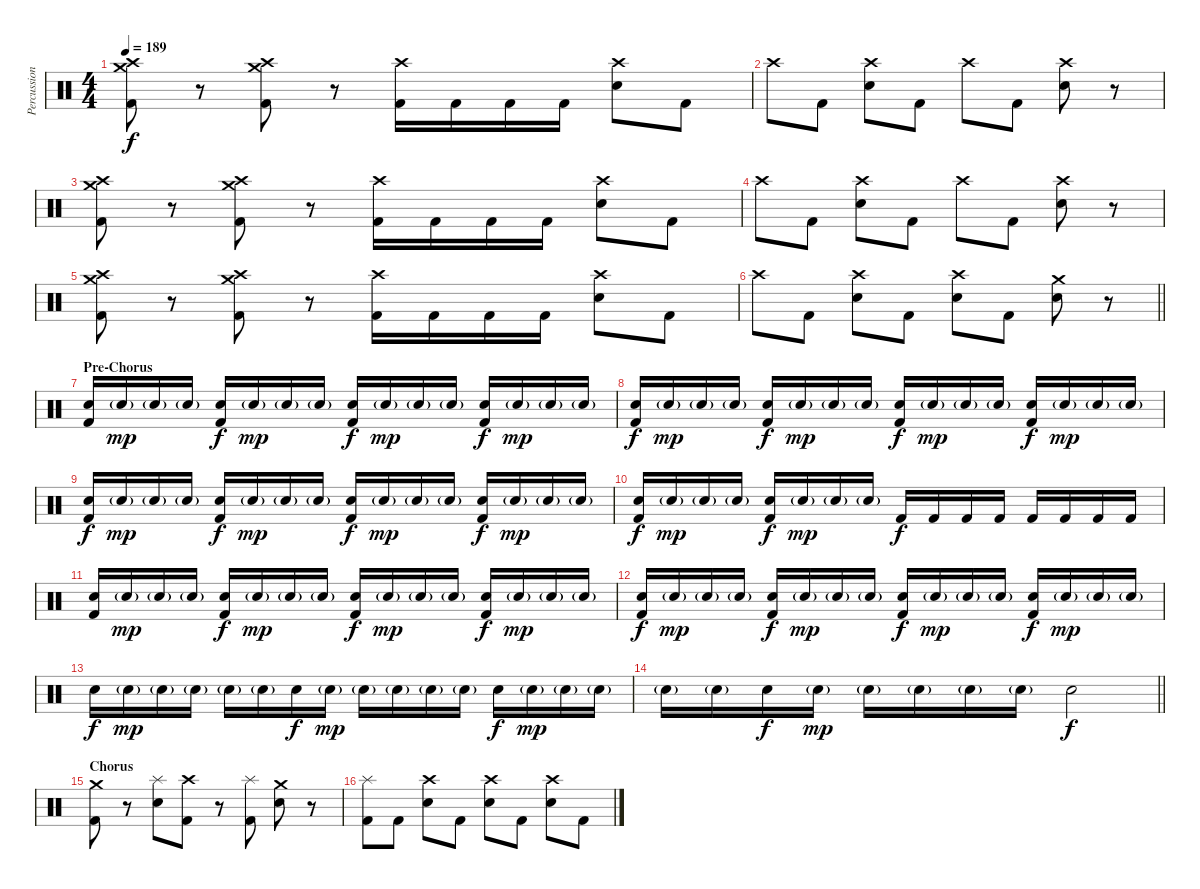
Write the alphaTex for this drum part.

\track ("Percussion" "Percussion") {instrument percussion}
\staff {score}
\articulation defaults
\ts (4 4)
\tempo 189
\clef neutral
\ks c
("Crash medium (hit)" "Crash high (hit)" "Kick (hit) 2").8{dy f} r.8 ("Crash medium (hit)" "Crash high (hit)" "Kick (hit) 2").8 r.8 ("Crash high (hit)" "Kick (hit) 2").16 "Kick (hit) 2".16 "Kick (hit) 2".16 "Kick (hit) 2".16 ("Crash high (hit)" "Electric Snare (hit)").8 "Kick (hit) 2".8 |
"Crash high (hit)".8 "Kick (hit) 2".8 ("Crash high (hit)" "Electric Snare (hit)").8 "Kick (hit) 2".8 "Crash high (hit)".8 "Kick (hit) 2".8 ("Crash high (hit)" "Electric Snare (hit)").8 r.8 |
("Crash medium (hit)" "Crash high (hit)" "Kick (hit) 2").8 r.8 ("Crash medium (hit)" "Crash high (hit)" "Kick (hit) 2").8 r.8 ("Crash high (hit)" "Kick (hit) 2").16 "Kick (hit) 2".16 "Kick (hit) 2".16 "Kick (hit) 2".16 ("Crash high (hit)" "Electric Snare (hit)").8 "Kick (hit) 2".8 |
"Crash high (hit)".8 "Kick (hit) 2".8 ("Crash high (hit)" "Electric Snare (hit)").8 "Kick (hit) 2".8 "Crash high (hit)".8 "Kick (hit) 2".8 ("Crash high (hit)" "Electric Snare (hit)").8 r.8 |
("Crash medium (hit)" "Crash high (hit)" "Kick (hit) 2").8 r.8 ("Crash medium (hit)" "Crash high (hit)" "Kick (hit) 2").8 r.8 ("Crash high (hit)" "Kick (hit) 2").16 "Kick (hit) 2".16 "Kick (hit) 2".16 "Kick (hit) 2".16 ("Crash high (hit)" "Electric Snare (hit)").8 "Kick (hit) 2".8 |
\barLineRight lightlight "Crash high (hit)".8 "Kick (hit) 2".8
("Crash high (hit)" "Electric Snare (hit)").8 "Kick (hit) 2".8 ("Crash high (hit)" "Electric Snare (hit)").8 "Kick (hit) 2".8 ("Crash medium (hit)" "Electric Snare (hit)").8 r.8 |
\section ("" "Pre-Chorus")
("Electric Snare (hit)" "Kick (hit) 2").16 "Electric Snare (hit)"{g}.16{dy mp} "Electric Snare (hit)"{g}.16 "Electric Snare (hit)"{g}.16 ("Electric Snare (hit)" "Kick (hit) 2").16{dy f} "Electric Snare (hit)"{g}.16{dy mp} "Electric Snare (hit)"{g}.16 "Electric Snare (hit)"{g}.16 ("Electric Snare (hit)" "Kick (hit) 2").16{dy f} "Electric Snare (hit)"{g}.16{dy mp} "Electric Snare (hit)"{g}.16 "Electric Snare (hit)"{g}.16 ("Electric Snare (hit)" "Kick (hit) 2").16{dy f} "Electric Snare (hit)"{g}.16{dy mp} "Electric Snare (hit)"{g}.16 "Electric Snare (hit)"{g}.16 |
("Electric Snare (hit)" "Kick (hit) 2").16{dy f} "Electric Snare (hit)"{g}.16{dy mp} "Electric Snare (hit)"{g}.16 "Electric Snare (hit)"{g}.16 ("Electric Snare (hit)" "Kick (hit) 2").16{dy f} "Electric Snare (hit)"{g}.16{dy mp} "Electric Snare (hit)"{g}.16 "Electric Snare (hit)"{g}.16 ("Electric Snare (hit)" "Kick (hit) 2").16{dy f} "Electric Snare (hit)"{g}.16{dy mp} "Electric Snare (hit)"{g}.16 "Electric Snare (hit)"{g}.16 ("Electric Snare (hit)" "Kick (hit) 2").16{dy f} "Electric Snare (hit)"{g}.16{dy mp} "Electric Snare (hit)"{g}.16 "Electric Snare (hit)"{g}.16 |
("Electric Snare (hit)" "Kick (hit) 2").16{dy f} "Electric Snare (hit)"{g}.16{dy mp} "Electric Snare (hit)"{g}.16 "Electric Snare (hit)"{g}.16 ("Electric Snare (hit)" "Kick (hit) 2").16{dy f} "Electric Snare (hit)"{g}.16{dy mp} "Electric Snare (hit)"{g}.16 "Electric Snare (hit)"{g}.16 ("Electric Snare (hit)" "Kick (hit) 2").16{dy f} "Electric Snare (hit)"{g}.16{dy mp} "Electric Snare (hit)"{g}.16 "Electric Snare (hit)"{g}.16 ("Electric Snare (hit)" "Kick (hit) 2").16{dy f} "Electric Snare (hit)"{g}.16{dy mp} "Electric Snare (hit)"{g}.16 "Electric Snare (hit)"{g}.16 |
("Electric Snare (hit)" "Kick (hit) 2").16{dy f} "Electric Snare (hit)"{g}.16{dy mp} "Electric Snare (hit)"{g}.16 "Electric Snare (hit)"{g}.16 ("Electric Snare (hit)" "Kick (hit) 2").16{dy f} "Electric Snare (hit)"{g}.16{dy mp} "Electric Snare (hit)"{g}.16 "Electric Snare (hit)"{g}.16 "Kick (hit) 2".16{dy f} "Kick (hit) 2".16 "Kick (hit) 2".16 "Kick (hit) 2".16 "Kick (hit) 2".16 "Kick (hit) 2".16 "Kick (hit) 2".16 "Kick (hit) 2".16 |
("Electric Snare (hit)" "Kick (hit) 2").16 "Electric Snare (hit)"{g}.16{dy mp} "Electric Snare (hit)"{g}.16 "Electric Snare (hit)"{g}.16 ("Electric Snare (hit)" "Kick (hit) 2").16{dy f} "Electric Snare (hit)"{g}.16{dy mp} "Electric Snare (hit)"{g}.16 "Electric Snare (hit)"{g}.16 ("Electric Snare (hit)" "Kick (hit) 2").16{dy f} "Electric Snare (hit)"{g}.16{dy mp} "Electric Snare (hit)"{g}.16 "Electric Snare (hit)"{g}.16 ("Electric Snare (hit)" "Kick (hit) 2").16{dy f} "Electric Snare (hit)"{g}.16{dy mp} "Electric Snare (hit)"{g}.16 "Electric Snare (hit)"{g}.16 |
("Electric Snare (hit)" "Kick (hit) 2").16{dy f} "Electric Snare (hit)"{g}.16{dy mp} "Electric Snare (hit)"{g}.16 "Electric Snare (hit)"{g}.16 ("Electric Snare (hit)" "Kick (hit) 2").16{dy f} "Electric Snare (hit)"{g}.16{dy mp} "Electric Snare (hit)"{g}.16 "Electric Snare (hit)"{g}.16 ("Electric Snare (hit)" "Kick (hit) 2").16{dy f} "Electric Snare (hit)"{g}.16{dy mp} "Electric Snare (hit)"{g}.16 "Electric Snare (hit)"{g}.16 ("Electric Snare (hit)" "Kick (hit) 2").16{dy f} "Electric Snare (hit)"{g}.16{dy mp} "Electric Snare (hit)"{g}.16 "Electric Snare (hit)"{g}.16 |
"Electric Snare (hit)".16{dy f} "Electric Snare (hit)"{g}.16{dy mp} "Electric Snare (hit)"{g}.16 "Electric Snare (hit)"{g}.16 "Electric Snare (hit)"{g}.16 "Electric Snare (hit)"{g}.16 "Electric Snare (hit)".16{dy f} "Electric Snare (hit)"{g}.16{dy mp} "Electric Snare (hit)"{g}.16 "Electric Snare (hit)"{g}.16 "Electric Snare (hit)"{g}.16 "Electric Snare (hit)"{g}.16 "Electric Snare (hit)".16{dy f} "Electric Snare (hit)"{g}.16{dy mp} "Electric Snare (hit)"{g}.16 "Electric Snare (hit)"{g}.16 |
\barLineRight lightlight "Electric Snare (hit)"{g}.16 "Electric Snare (hit)"{g}.16 "Electric Snare (hit)".16{dy f} "Electric Snare (hit)"{g}.16{dy mp} "Electric Snare (hit)"{g}.16 "Electric Snare (hit)"{g}.16 "Electric Snare (hit)"{g}.16 "Electric Snare (hit)"{g}.16 "Electric Snare (hit)".2{dy f}
|
\section ("" "Chorus")
("Crash medium (hit)" "Kick (hit) 2").8 r.8 ("Splash (hit)" "Electric Snare (hit)").8 ("Crash high (hit)" "Kick (hit) 2").8 r.8 ("Splash (hit)" "Kick (hit) 2").8 ("Crash medium (hit)" "Electric Snare (hit)").8 r.8 |
("Splash (hit)" "Kick (hit) 2").8 "Kick (hit) 2".8 ("Crash high (hit)" "Electric Snare (hit)").8 "Kick (hit) 2".8 ("Crash high (hit)" "Electric Snare (hit)").8 "Kick (hit) 2".8 ("Crash high (hit)" "Electric Snare (hit)").8 "Kick (hit) 2".8
